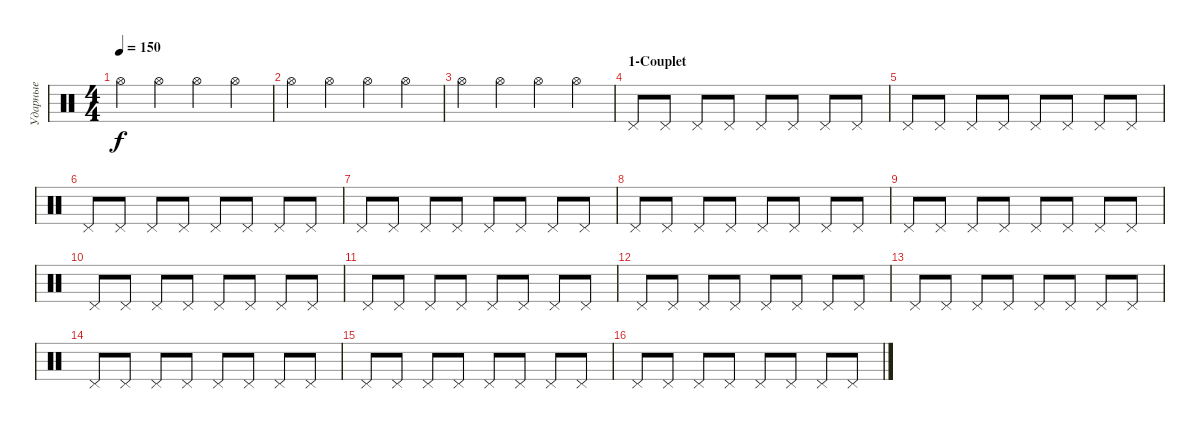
\track ("Ударные" "Ударные") {instrument percussion}
\staff {score}
\articulation defaults
\ts (4 4)
\tempo 150
\clef neutral
\ks c "Hi-Hat (open)".4{dy f} "Hi-Hat (open)".4 "Hi-Hat (open)".4 "Hi-Hat (open)".4
|
"Hi-Hat (open)".4 "Hi-Hat (open)".4 "Hi-Hat (open)".4 "Hi-Hat (open)".4 |
"Hi-Hat (open)".4 "Hi-Hat (open)".4 "Hi-Hat (open)".4 "Hi-Hat (open)".4 |
\section ("" "1-Couplet")
"Pedal Hi-Hat (hit)".8 "Pedal Hi-Hat (hit)".8 "Pedal Hi-Hat (hit)".8 "Pedal Hi-Hat (hit)".8 "Pedal Hi-Hat (hit)".8 "Pedal Hi-Hat (hit)".8 "Pedal Hi-Hat (hit)".8 "Pedal Hi-Hat (hit)".8 |
"Pedal Hi-Hat (hit)".8 "Pedal Hi-Hat (hit)".8 "Pedal Hi-Hat (hit)".8 "Pedal Hi-Hat (hit)".8 "Pedal Hi-Hat (hit)".8 "Pedal Hi-Hat (hit)".8 "Pedal Hi-Hat (hit)".8 "Pedal Hi-Hat (hit)".8 |
"Pedal Hi-Hat (hit)".8 "Pedal Hi-Hat (hit)".8 "Pedal Hi-Hat (hit)".8 "Pedal Hi-Hat (hit)".8 "Pedal Hi-Hat (hit)".8 "Pedal Hi-Hat (hit)".8 "Pedal Hi-Hat (hit)".8 "Pedal Hi-Hat (hit)".8 |
"Pedal Hi-Hat (hit)".8 "Pedal Hi-Hat (hit)".8 "Pedal Hi-Hat (hit)".8 "Pedal Hi-Hat (hit)".8 "Pedal Hi-Hat (hit)".8 "Pedal Hi-Hat (hit)".8 "Pedal Hi-Hat (hit)".8 "Pedal Hi-Hat (hit)".8 |
"Pedal Hi-Hat (hit)".8 "Pedal Hi-Hat (hit)".8 "Pedal Hi-Hat (hit)".8 "Pedal Hi-Hat (hit)".8 "Pedal Hi-Hat (hit)".8 "Pedal Hi-Hat (hit)".8 "Pedal Hi-Hat (hit)".8 "Pedal Hi-Hat (hit)".8 |
"Pedal Hi-Hat (hit)".8 "Pedal Hi-Hat (hit)".8 "Pedal Hi-Hat (hit)".8 "Pedal Hi-Hat (hit)".8 "Pedal Hi-Hat (hit)".8 "Pedal Hi-Hat (hit)".8 "Pedal Hi-Hat (hit)".8 "Pedal Hi-Hat (hit)".8 |
"Pedal Hi-Hat (hit)".8 "Pedal Hi-Hat (hit)".8 "Pedal Hi-Hat (hit)".8 "Pedal Hi-Hat (hit)".8 "Pedal Hi-Hat (hit)".8 "Pedal Hi-Hat (hit)".8 "Pedal Hi-Hat (hit)".8 "Pedal Hi-Hat (hit)".8 |
"Pedal Hi-Hat (hit)".8 "Pedal Hi-Hat (hit)".8 "Pedal Hi-Hat (hit)".8 "Pedal Hi-Hat (hit)".8 "Pedal Hi-Hat (hit)".8 "Pedal Hi-Hat (hit)".8 "Pedal Hi-Hat (hit)".8 "Pedal Hi-Hat (hit)".8 |
"Pedal Hi-Hat (hit)".8 "Pedal Hi-Hat (hit)".8 "Pedal Hi-Hat (hit)".8 "Pedal Hi-Hat (hit)".8 "Pedal Hi-Hat (hit)".8 "Pedal Hi-Hat (hit)".8 "Pedal Hi-Hat (hit)".8 "Pedal Hi-Hat (hit)".8 |
"Pedal Hi-Hat (hit)".8 "Pedal Hi-Hat (hit)".8 "Pedal Hi-Hat (hit)".8 "Pedal Hi-Hat (hit)".8 "Pedal Hi-Hat (hit)".8 "Pedal Hi-Hat (hit)".8 "Pedal Hi-Hat (hit)".8 "Pedal Hi-Hat (hit)".8 |
"Pedal Hi-Hat (hit)".8 "Pedal Hi-Hat (hit)".8 "Pedal Hi-Hat (hit)".8 "Pedal Hi-Hat (hit)".8 "Pedal Hi-Hat (hit)".8 "Pedal Hi-Hat (hit)".8 "Pedal Hi-Hat (hit)".8 "Pedal Hi-Hat (hit)".8 |
"Pedal Hi-Hat (hit)".8 "Pedal Hi-Hat (hit)".8 "Pedal Hi-Hat (hit)".8 "Pedal Hi-Hat (hit)".8 "Pedal Hi-Hat (hit)".8 "Pedal Hi-Hat (hit)".8 "Pedal Hi-Hat (hit)".8 "Pedal Hi-Hat (hit)".8 |
"Pedal Hi-Hat (hit)".8 "Pedal Hi-Hat (hit)".8 "Pedal Hi-Hat (hit)".8 "Pedal Hi-Hat (hit)".8 "Pedal Hi-Hat (hit)".8 "Pedal Hi-Hat (hit)".8 "Pedal Hi-Hat (hit)".8 "Pedal Hi-Hat (hit)".8
